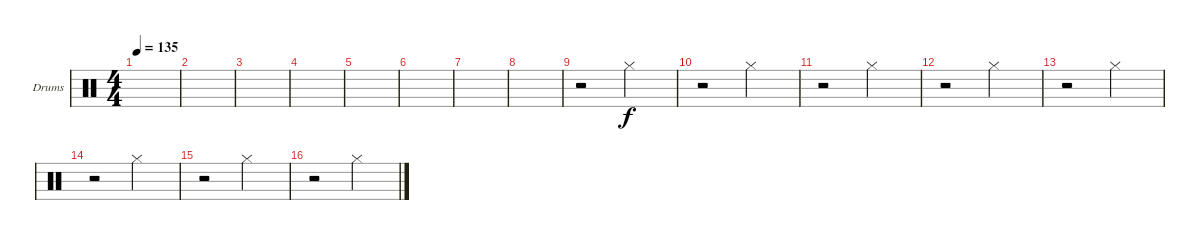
\defaultSystemsLayout 4
\bracketExtendMode groupsimilarinstruments
\firstSystemTrackNameOrientation horizontal
\otherSystemsTrackNameOrientation horizontal
\track ("Drumkit" "Drums") {instrument percussion}
\staff {score}
\articulation defaults
\ts (4 4)
\tempo 135
\clef neutral
\scale
0.474178
\ks c
|
\scale
0.262911 |
\scale
0.262911 |
\scale
0.333333 |
\scale
0.333333 |
\scale
0.333333 |
\scale
0.333333 |
\scale
0.333333 |
\scale
0.333333 r.2 "Hi-Hat (closed)".2 |
\scale
0.333333 r.2 "Hi-Hat (closed)".2 |
\scale
0.333333 r.2 "Hi-Hat (closed)".2 |
\scale
0.333333 r.2 "Hi-Hat (closed)".2 |
\scale
0.333333 r.2 "Hi-Hat (closed)".2 |
\scale
0.333333 r.2 "Hi-Hat (closed)".2 |
\scale
0.333333 r.2 "Hi-Hat (closed)".2 |
r.2 "Hi-Hat (closed)".2
